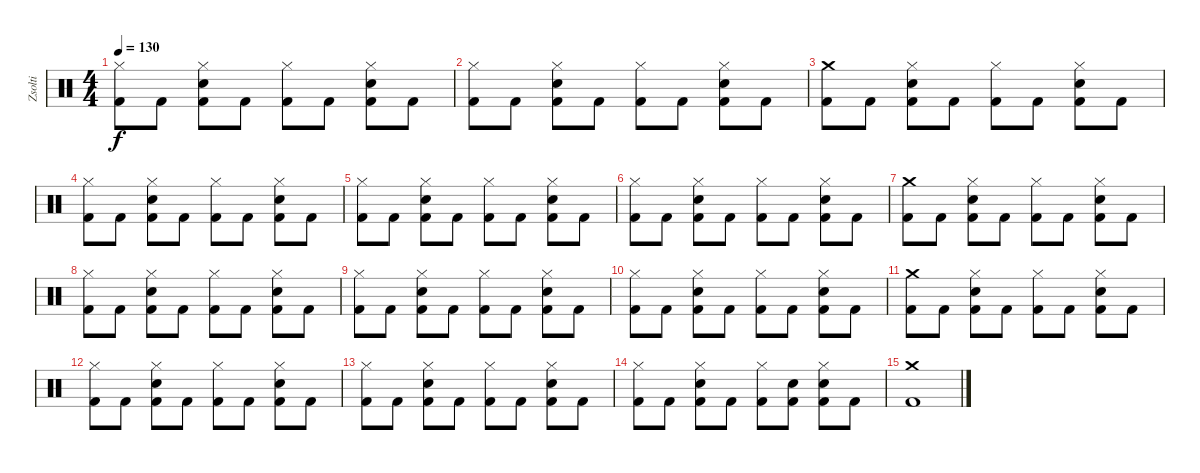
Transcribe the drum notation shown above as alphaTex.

\track ("Zsolti" "Zsolti") {instrument percussion}
\staff {score}
\articulation defaults
\ts (4 4)
\tempo 130
\clef neutral
\ks c
("Hi-Hat (closed)" "Kick (hit) 2").8{dy f} "Kick (hit) 2".8 ("Hi-Hat (closed)" "Snare (hit) 2" "Kick (hit) 2").8 "Kick (hit) 2".8 ("Hi-Hat (closed)" "Kick (hit) 2").8 "Kick (hit) 2".8 ("Hi-Hat (closed)" "Snare (hit) 2" "Kick (hit) 2").8 "Kick (hit) 2".8 |
("Hi-Hat (closed)" "Kick (hit) 2").8 "Kick (hit) 2".8 ("Hi-Hat (closed)" "Snare (hit) 2" "Kick (hit) 2").8 "Kick (hit) 2".8 ("Hi-Hat (closed)" "Kick (hit) 2").8 "Kick (hit) 2".8 ("Hi-Hat (closed)" "Snare (hit) 2" "Kick (hit) 2").8 "Kick (hit) 2".8 |
("Crash medium (hit)" "Kick (hit) 2").8 "Kick (hit) 2".8 ("Hi-Hat (closed)" "Snare (hit) 2" "Kick (hit) 2").8 "Kick (hit) 2".8 ("Hi-Hat (closed)" "Kick (hit) 2").8 "Kick (hit) 2".8 ("Hi-Hat (closed)" "Snare (hit) 2" "Kick (hit) 2").8 "Kick (hit) 2".8 |
("Hi-Hat (closed)" "Kick (hit) 2").8 "Kick (hit) 2".8 ("Hi-Hat (closed)" "Snare (hit) 2" "Kick (hit) 2").8 "Kick (hit) 2".8 ("Hi-Hat (closed)" "Kick (hit) 2").8 "Kick (hit) 2".8 ("Hi-Hat (closed)" "Snare (hit) 2" "Kick (hit) 2").8 "Kick (hit) 2".8 |
("Hi-Hat (closed)" "Kick (hit) 2").8 "Kick (hit) 2".8 ("Hi-Hat (closed)" "Snare (hit) 2" "Kick (hit) 2").8 "Kick (hit) 2".8 ("Hi-Hat (closed)" "Kick (hit) 2").8 "Kick (hit) 2".8 ("Hi-Hat (closed)" "Snare (hit) 2" "Kick (hit) 2").8 "Kick (hit) 2".8 |
("Hi-Hat (closed)" "Kick (hit) 2").8 "Kick (hit) 2".8 ("Hi-Hat (closed)" "Snare (hit) 2" "Kick (hit) 2").8 "Kick (hit) 2".8 ("Hi-Hat (closed)" "Kick (hit) 2").8 "Kick (hit) 2".8 ("Hi-Hat (closed)" "Snare (hit) 2" "Kick (hit) 2").8 "Kick (hit) 2".8 |
("Crash medium (hit)" "Kick (hit) 2").8 "Kick (hit) 2".8 ("Hi-Hat (closed)" "Snare (hit) 2" "Kick (hit) 2").8 "Kick (hit) 2".8 ("Hi-Hat (closed)" "Kick (hit) 2").8 "Kick (hit) 2".8 ("Hi-Hat (closed)" "Snare (hit) 2" "Kick (hit) 2").8 "Kick (hit) 2".8 |
("Hi-Hat (closed)" "Kick (hit) 2").8 "Kick (hit) 2".8 ("Hi-Hat (closed)" "Snare (hit) 2" "Kick (hit) 2").8 "Kick (hit) 2".8 ("Hi-Hat (closed)" "Kick (hit) 2").8 "Kick (hit) 2".8 ("Hi-Hat (closed)" "Snare (hit) 2" "Kick (hit) 2").8 "Kick (hit) 2".8 |
("Hi-Hat (closed)" "Kick (hit) 2").8 "Kick (hit) 2".8 ("Hi-Hat (closed)" "Snare (hit) 2" "Kick (hit) 2").8 "Kick (hit) 2".8 ("Hi-Hat (closed)" "Kick (hit) 2").8 "Kick (hit) 2".8 ("Hi-Hat (closed)" "Snare (hit) 2" "Kick (hit) 2").8 "Kick (hit) 2".8 |
("Hi-Hat (closed)" "Kick (hit) 2").8 "Kick (hit) 2".8 ("Hi-Hat (closed)" "Snare (hit) 2" "Kick (hit) 2").8 "Kick (hit) 2".8 ("Hi-Hat (closed)" "Kick (hit) 2").8 "Kick (hit) 2".8 ("Hi-Hat (closed)" "Snare (hit) 2" "Kick (hit) 2").8 "Kick (hit) 2".8 |
("Crash medium (hit)" "Kick (hit) 2").8 "Kick (hit) 2".8 ("Hi-Hat (closed)" "Snare (hit) 2" "Kick (hit) 2").8 "Kick (hit) 2".8 ("Hi-Hat (closed)" "Kick (hit) 2").8 "Kick (hit) 2".8 ("Hi-Hat (closed)" "Snare (hit) 2" "Kick (hit) 2").8 "Kick (hit) 2".8 |
("Hi-Hat (closed)" "Kick (hit) 2").8 "Kick (hit) 2".8 ("Hi-Hat (closed)" "Snare (hit) 2" "Kick (hit) 2").8 "Kick (hit) 2".8 ("Hi-Hat (closed)" "Kick (hit) 2").8 "Kick (hit) 2".8 ("Hi-Hat (closed)" "Snare (hit) 2" "Kick (hit) 2").8 "Kick (hit) 2".8 |
("Hi-Hat (closed)" "Kick (hit) 2").8 "Kick (hit) 2".8 ("Hi-Hat (closed)" "Snare (hit) 2" "Kick (hit) 2").8 "Kick (hit) 2".8 ("Hi-Hat (closed)" "Kick (hit) 2").8 "Kick (hit) 2".8 ("Hi-Hat (closed)" "Snare (hit) 2" "Kick (hit) 2").8 "Kick (hit) 2".8 |
("Hi-Hat (closed)" "Kick (hit) 2").8 "Kick (hit) 2".8 ("Hi-Hat (closed)" "Snare (hit) 2" "Kick (hit) 2").8 "Kick (hit) 2".8 ("Hi-Hat (closed)" "Kick (hit) 2").8 ("Snare (hit) 2" "Kick (hit) 2").8 ("Hi-Hat (closed)" "Snare (hit) 2" "Kick (hit) 2").8 "Kick (hit) 2".8 |
("Crash medium (hit)" "Kick (hit) 2").1
